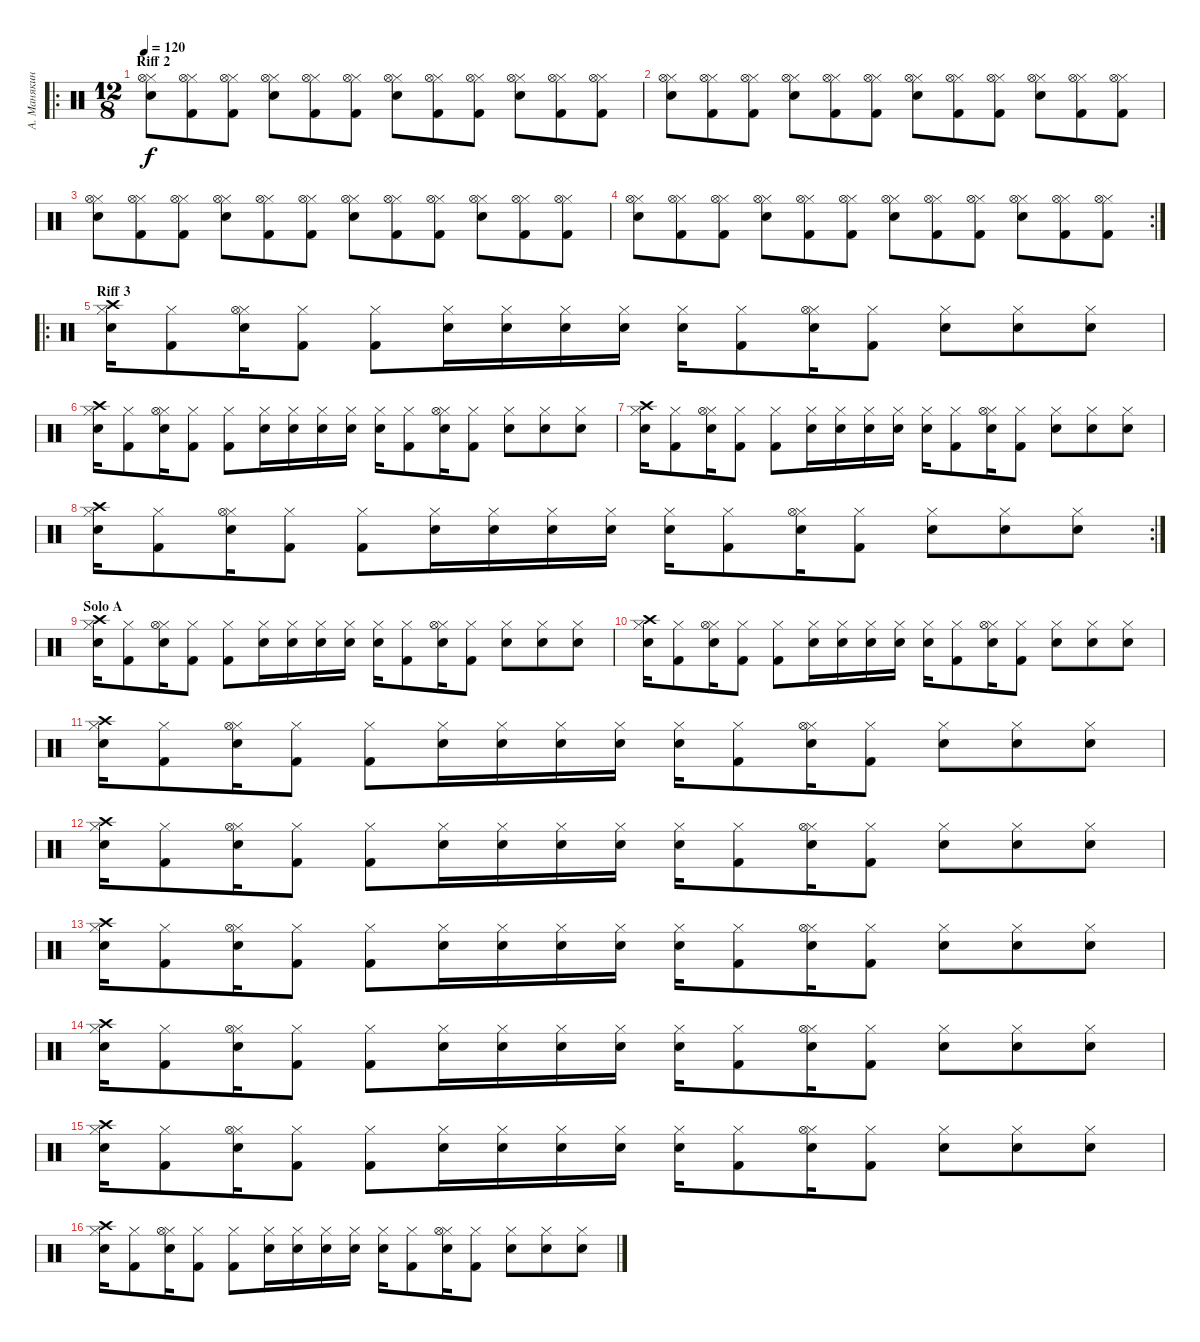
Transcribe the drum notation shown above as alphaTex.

\track ("А. Манякин" "А. Манякин") {instrument percussion}
\staff {score}
\articulation defaults
\ro
\ts (12 8)
\section ("" "Riff 2")
\tempo 120
\clef neutral
\ks c
("Hi-Hat (closed)" "Snare (hit) 2" "Hi-Hat (open)").8{dy f} ("Hi-Hat (closed)" "Kick (hit) 2" "Hi-Hat (open)").8 ("Hi-Hat (closed)" "Kick (hit) 2" "Hi-Hat (open)").8 ("Hi-Hat (closed)" "Snare (hit) 2" "Hi-Hat (open)").8 ("Hi-Hat (closed)" "Kick (hit) 2" "Hi-Hat (open)").8 ("Hi-Hat (closed)" "Kick (hit) 2" "Hi-Hat (open)").8 ("Hi-Hat (closed)" "Snare (hit) 2" "Hi-Hat (open)").8 ("Hi-Hat (closed)" "Kick (hit) 2" "Hi-Hat (open)").8 ("Hi-Hat (closed)" "Kick (hit) 2" "Hi-Hat (open)").8 ("Hi-Hat (closed)" "Snare (hit) 2" "Hi-Hat (open)").8 ("Hi-Hat (closed)" "Kick (hit) 2" "Hi-Hat (open)").8 ("Hi-Hat (closed)" "Kick (hit) 2" "Hi-Hat (open)").8 |
("Hi-Hat (closed)" "Snare (hit) 2" "Hi-Hat (open)").8 ("Hi-Hat (closed)" "Kick (hit) 2" "Hi-Hat (open)").8 ("Hi-Hat (closed)" "Kick (hit) 2" "Hi-Hat (open)").8 ("Hi-Hat (closed)" "Snare (hit) 2" "Hi-Hat (open)").8 ("Hi-Hat (closed)" "Kick (hit) 2" "Hi-Hat (open)").8 ("Hi-Hat (closed)" "Kick (hit) 2" "Hi-Hat (open)").8 ("Hi-Hat (closed)" "Snare (hit) 2" "Hi-Hat (open)").8 ("Hi-Hat (closed)" "Kick (hit) 2" "Hi-Hat (open)").8 ("Hi-Hat (closed)" "Kick (hit) 2" "Hi-Hat (open)").8 ("Hi-Hat (closed)" "Snare (hit) 2" "Hi-Hat (open)").8 ("Hi-Hat (closed)" "Kick (hit) 2" "Hi-Hat (open)").8 ("Hi-Hat (closed)" "Kick (hit) 2" "Hi-Hat (open)").8 |
("Hi-Hat (closed)" "Snare (hit) 2" "Hi-Hat (open)").8 ("Hi-Hat (closed)" "Kick (hit) 2" "Hi-Hat (open)").8 ("Hi-Hat (closed)" "Kick (hit) 2" "Hi-Hat (open)").8 ("Hi-Hat (closed)" "Snare (hit) 2" "Hi-Hat (open)").8 ("Hi-Hat (closed)" "Kick (hit) 2" "Hi-Hat (open)").8 ("Hi-Hat (closed)" "Kick (hit) 2" "Hi-Hat (open)").8 ("Hi-Hat (closed)" "Snare (hit) 2" "Hi-Hat (open)").8 ("Hi-Hat (closed)" "Kick (hit) 2" "Hi-Hat (open)").8 ("Hi-Hat (closed)" "Kick (hit) 2" "Hi-Hat (open)").8 ("Hi-Hat (closed)" "Snare (hit) 2" "Hi-Hat (open)").8 ("Hi-Hat (closed)" "Kick (hit) 2" "Hi-Hat (open)").8 ("Hi-Hat (closed)" "Kick (hit) 2" "Hi-Hat (open)").8 |
\rc 2
("Hi-Hat (closed)" "Snare (hit) 2" "Hi-Hat (open)").8 ("Hi-Hat (closed)" "Kick (hit) 2" "Hi-Hat (open)").8 ("Hi-Hat (closed)" "Kick (hit) 2" "Hi-Hat (open)").8 ("Hi-Hat (closed)" "Snare (hit) 2" "Hi-Hat (open)").8 ("Hi-Hat (closed)" "Kick (hit) 2" "Hi-Hat (open)").8 ("Hi-Hat (closed)" "Kick (hit) 2" "Hi-Hat (open)").8 ("Hi-Hat (closed)" "Snare (hit) 2" "Hi-Hat (open)").8 ("Hi-Hat (closed)" "Kick (hit) 2" "Hi-Hat (open)").8 ("Hi-Hat (closed)" "Kick (hit) 2" "Hi-Hat (open)").8 ("Hi-Hat (closed)" "Snare (hit) 2" "Hi-Hat (open)").8 ("Hi-Hat (closed)" "Kick (hit) 2" "Hi-Hat (open)").8 ("Hi-Hat (closed)" "Kick (hit) 2" "Hi-Hat (open)").8 |
\ro
\section ("" "Riff 3")
("Hi-Hat (closed)" "Snare (hit) 2" "Crash high (hit)").16 ("Hi-Hat (closed)" "Kick (hit) 2").8 ("Hi-Hat (closed)" "Snare (hit) 2" "Hi-Hat (open)").16 ("Hi-Hat (closed)" "Kick (hit) 2").8 ("Hi-Hat (closed)" "Kick (hit) 2").8 ("Hi-Hat (closed)" "Snare (hit) 2").16 ("Hi-Hat (closed)" "Snare (hit) 2").16 ("Hi-Hat (closed)" "Snare (hit) 2").16 ("Hi-Hat (closed)" "Snare (hit) 2").16 ("Hi-Hat (closed)" "Snare (hit) 2").16 ("Hi-Hat (closed)" "Kick (hit) 2").8 ("Hi-Hat (closed)" "Snare (hit) 2" "Hi-Hat (open)").16 ("Hi-Hat (closed)" "Kick (hit) 2").8 ("Hi-Hat (closed)" "Snare (hit) 2").8 ("Hi-Hat (closed)" "Snare (hit) 2").8 ("Hi-Hat (closed)" "Snare (hit) 2").8 |
("Hi-Hat (closed)" "Snare (hit) 2" "Crash high (hit)").16 ("Hi-Hat (closed)" "Kick (hit) 2").8 ("Hi-Hat (closed)" "Snare (hit) 2" "Hi-Hat (open)").16 ("Hi-Hat (closed)" "Kick (hit) 2").8 ("Hi-Hat (closed)" "Kick (hit) 2").8 ("Hi-Hat (closed)" "Snare (hit) 2").16 ("Hi-Hat (closed)" "Snare (hit) 2").16 ("Hi-Hat (closed)" "Snare (hit) 2").16 ("Hi-Hat (closed)" "Snare (hit) 2").16 ("Hi-Hat (closed)" "Snare (hit) 2").16 ("Hi-Hat (closed)" "Kick (hit) 2").8 ("Hi-Hat (closed)" "Snare (hit) 2" "Hi-Hat (open)").16 ("Hi-Hat (closed)" "Kick (hit) 2").8 ("Hi-Hat (closed)" "Snare (hit) 2").8 ("Hi-Hat (closed)" "Snare (hit) 2").8 ("Hi-Hat (closed)" "Snare (hit) 2").8 |
("Hi-Hat (closed)" "Snare (hit) 2" "Crash high (hit)").16 ("Hi-Hat (closed)" "Kick (hit) 2").8 ("Hi-Hat (closed)" "Snare (hit) 2" "Hi-Hat (open)").16 ("Hi-Hat (closed)" "Kick (hit) 2").8 ("Hi-Hat (closed)" "Kick (hit) 2").8 ("Hi-Hat (closed)" "Snare (hit) 2").16 ("Hi-Hat (closed)" "Snare (hit) 2").16 ("Hi-Hat (closed)" "Snare (hit) 2").16 ("Hi-Hat (closed)" "Snare (hit) 2").16 ("Hi-Hat (closed)" "Snare (hit) 2").16 ("Hi-Hat (closed)" "Kick (hit) 2").8 ("Hi-Hat (closed)" "Snare (hit) 2" "Hi-Hat (open)").16 ("Hi-Hat (closed)" "Kick (hit) 2").8 ("Hi-Hat (closed)" "Snare (hit) 2").8 ("Hi-Hat (closed)" "Snare (hit) 2").8 ("Hi-Hat (closed)" "Snare (hit) 2").8 |
\rc 2
("Hi-Hat (closed)" "Snare (hit) 2" "Crash high (hit)").16 ("Hi-Hat (closed)" "Kick (hit) 2").8 ("Hi-Hat (closed)" "Snare (hit) 2" "Hi-Hat (open)").16 ("Hi-Hat (closed)" "Kick (hit) 2").8 ("Hi-Hat (closed)" "Kick (hit) 2").8 ("Hi-Hat (closed)" "Snare (hit) 2").16 ("Hi-Hat (closed)" "Snare (hit) 2").16 ("Hi-Hat (closed)" "Snare (hit) 2").16 ("Hi-Hat (closed)" "Snare (hit) 2").16 ("Hi-Hat (closed)" "Snare (hit) 2").16 ("Hi-Hat (closed)" "Kick (hit) 2").8 ("Hi-Hat (closed)" "Snare (hit) 2" "Hi-Hat (open)").16 ("Hi-Hat (closed)" "Kick (hit) 2").8 ("Hi-Hat (closed)" "Snare (hit) 2").8 ("Hi-Hat (closed)" "Snare (hit) 2").8 ("Hi-Hat (closed)" "Snare (hit) 2").8 |
\section ("" "Solo A")
("Hi-Hat (closed)" "Snare (hit) 2" "Crash high (hit)").16 ("Hi-Hat (closed)" "Kick (hit) 2").8 ("Hi-Hat (closed)" "Snare (hit) 2" "Hi-Hat (open)").16 ("Hi-Hat (closed)" "Kick (hit) 2").8 ("Hi-Hat (closed)" "Kick (hit) 2").8 ("Hi-Hat (closed)" "Snare (hit) 2").16 ("Hi-Hat (closed)" "Snare (hit) 2").16 ("Hi-Hat (closed)" "Snare (hit) 2").16 ("Hi-Hat (closed)" "Snare (hit) 2").16 ("Hi-Hat (closed)" "Snare (hit) 2").16 ("Hi-Hat (closed)" "Kick (hit) 2").8 ("Hi-Hat (closed)" "Snare (hit) 2" "Hi-Hat (open)").16 ("Hi-Hat (closed)" "Kick (hit) 2").8 ("Hi-Hat (closed)" "Snare (hit) 2").8 ("Hi-Hat (closed)" "Snare (hit) 2").8 ("Hi-Hat (closed)" "Snare (hit) 2").8 |
("Hi-Hat (closed)" "Snare (hit) 2" "Crash high (hit)").16 ("Hi-Hat (closed)" "Kick (hit) 2").8 ("Hi-Hat (closed)" "Snare (hit) 2" "Hi-Hat (open)").16 ("Hi-Hat (closed)" "Kick (hit) 2").8 ("Hi-Hat (closed)" "Kick (hit) 2").8 ("Hi-Hat (closed)" "Snare (hit) 2").16 ("Hi-Hat (closed)" "Snare (hit) 2").16 ("Hi-Hat (closed)" "Snare (hit) 2").16 ("Hi-Hat (closed)" "Snare (hit) 2").16 ("Hi-Hat (closed)" "Snare (hit) 2").16 ("Hi-Hat (closed)" "Kick (hit) 2").8 ("Hi-Hat (closed)" "Snare (hit) 2" "Hi-Hat (open)").16 ("Hi-Hat (closed)" "Kick (hit) 2").8 ("Hi-Hat (closed)" "Snare (hit) 2").8 ("Hi-Hat (closed)" "Snare (hit) 2").8 ("Hi-Hat (closed)" "Snare (hit) 2").8 |
("Hi-Hat (closed)" "Snare (hit) 2" "Crash high (hit)").16 ("Hi-Hat (closed)" "Kick (hit) 2").8 ("Hi-Hat (closed)" "Snare (hit) 2" "Hi-Hat (open)").16 ("Hi-Hat (closed)" "Kick (hit) 2").8 ("Hi-Hat (closed)" "Kick (hit) 2").8 ("Hi-Hat (closed)" "Snare (hit) 2").16 ("Hi-Hat (closed)" "Snare (hit) 2").16 ("Hi-Hat (closed)" "Snare (hit) 2").16 ("Hi-Hat (closed)" "Snare (hit) 2").16 ("Hi-Hat (closed)" "Snare (hit) 2").16 ("Hi-Hat (closed)" "Kick (hit) 2").8 ("Hi-Hat (closed)" "Snare (hit) 2" "Hi-Hat (open)").16 ("Hi-Hat (closed)" "Kick (hit) 2").8 ("Hi-Hat (closed)" "Snare (hit) 2").8 ("Hi-Hat (closed)" "Snare (hit) 2").8 ("Hi-Hat (closed)" "Snare (hit) 2").8 |
("Hi-Hat (closed)" "Snare (hit) 2" "Crash high (hit)").16 ("Hi-Hat (closed)" "Kick (hit) 2").8 ("Hi-Hat (closed)" "Snare (hit) 2" "Hi-Hat (open)").16 ("Hi-Hat (closed)" "Kick (hit) 2").8 ("Hi-Hat (closed)" "Kick (hit) 2").8 ("Hi-Hat (closed)" "Snare (hit) 2").16 ("Hi-Hat (closed)" "Snare (hit) 2").16 ("Hi-Hat (closed)" "Snare (hit) 2").16 ("Hi-Hat (closed)" "Snare (hit) 2").16 ("Hi-Hat (closed)" "Snare (hit) 2").16 ("Hi-Hat (closed)" "Kick (hit) 2").8 ("Hi-Hat (closed)" "Snare (hit) 2" "Hi-Hat (open)").16 ("Hi-Hat (closed)" "Kick (hit) 2").8 ("Hi-Hat (closed)" "Snare (hit) 2").8 ("Hi-Hat (closed)" "Snare (hit) 2").8 ("Hi-Hat (closed)" "Snare (hit) 2").8 |
("Hi-Hat (closed)" "Snare (hit) 2" "Crash high (hit)").16 ("Hi-Hat (closed)" "Kick (hit) 2").8 ("Hi-Hat (closed)" "Snare (hit) 2" "Hi-Hat (open)").16 ("Hi-Hat (closed)" "Kick (hit) 2").8 ("Hi-Hat (closed)" "Kick (hit) 2").8 ("Hi-Hat (closed)" "Snare (hit) 2").16 ("Hi-Hat (closed)" "Snare (hit) 2").16 ("Hi-Hat (closed)" "Snare (hit) 2").16 ("Hi-Hat (closed)" "Snare (hit) 2").16 ("Hi-Hat (closed)" "Snare (hit) 2").16 ("Hi-Hat (closed)" "Kick (hit) 2").8 ("Hi-Hat (closed)" "Snare (hit) 2" "Hi-Hat (open)").16 ("Hi-Hat (closed)" "Kick (hit) 2").8 ("Hi-Hat (closed)" "Snare (hit) 2").8 ("Hi-Hat (closed)" "Snare (hit) 2").8 ("Hi-Hat (closed)" "Snare (hit) 2").8 |
("Hi-Hat (closed)" "Snare (hit) 2" "Crash high (hit)").16 ("Hi-Hat (closed)" "Kick (hit) 2").8 ("Hi-Hat (closed)" "Snare (hit) 2" "Hi-Hat (open)").16 ("Hi-Hat (closed)" "Kick (hit) 2").8 ("Hi-Hat (closed)" "Kick (hit) 2").8 ("Hi-Hat (closed)" "Snare (hit) 2").16 ("Hi-Hat (closed)" "Snare (hit) 2").16 ("Hi-Hat (closed)" "Snare (hit) 2").16 ("Hi-Hat (closed)" "Snare (hit) 2").16 ("Hi-Hat (closed)" "Snare (hit) 2").16 ("Hi-Hat (closed)" "Kick (hit) 2").8 ("Hi-Hat (closed)" "Snare (hit) 2" "Hi-Hat (open)").16 ("Hi-Hat (closed)" "Kick (hit) 2").8 ("Hi-Hat (closed)" "Snare (hit) 2").8 ("Hi-Hat (closed)" "Snare (hit) 2").8 ("Hi-Hat (closed)" "Snare (hit) 2").8 |
("Hi-Hat (closed)" "Snare (hit) 2" "Crash high (hit)").16 ("Hi-Hat (closed)" "Kick (hit) 2").8 ("Hi-Hat (closed)" "Snare (hit) 2" "Hi-Hat (open)").16 ("Hi-Hat (closed)" "Kick (hit) 2").8 ("Hi-Hat (closed)" "Kick (hit) 2").8 ("Hi-Hat (closed)" "Snare (hit) 2").16 ("Hi-Hat (closed)" "Snare (hit) 2").16 ("Hi-Hat (closed)" "Snare (hit) 2").16 ("Hi-Hat (closed)" "Snare (hit) 2").16 ("Hi-Hat (closed)" "Snare (hit) 2").16 ("Hi-Hat (closed)" "Kick (hit) 2").8 ("Hi-Hat (closed)" "Snare (hit) 2" "Hi-Hat (open)").16 ("Hi-Hat (closed)" "Kick (hit) 2").8 ("Hi-Hat (closed)" "Snare (hit) 2").8 ("Hi-Hat (closed)" "Snare (hit) 2").8 ("Hi-Hat (closed)" "Snare (hit) 2").8 |
("Hi-Hat (closed)" "Snare (hit) 2" "Crash high (hit)").16 ("Hi-Hat (closed)" "Kick (hit) 2").8 ("Hi-Hat (closed)" "Snare (hit) 2" "Hi-Hat (open)").16 ("Hi-Hat (closed)" "Kick (hit) 2").8 ("Hi-Hat (closed)" "Kick (hit) 2").8 ("Hi-Hat (closed)" "Snare (hit) 2").16 ("Hi-Hat (closed)" "Snare (hit) 2").16 ("Hi-Hat (closed)" "Snare (hit) 2").16 ("Hi-Hat (closed)" "Snare (hit) 2").16 ("Hi-Hat (closed)" "Snare (hit) 2").16 ("Hi-Hat (closed)" "Kick (hit) 2").8 ("Hi-Hat (closed)" "Snare (hit) 2" "Hi-Hat (open)").16 ("Hi-Hat (closed)" "Kick (hit) 2").8 ("Hi-Hat (closed)" "Snare (hit) 2").8 ("Hi-Hat (closed)" "Snare (hit) 2").8 ("Hi-Hat (closed)" "Snare (hit) 2").8
